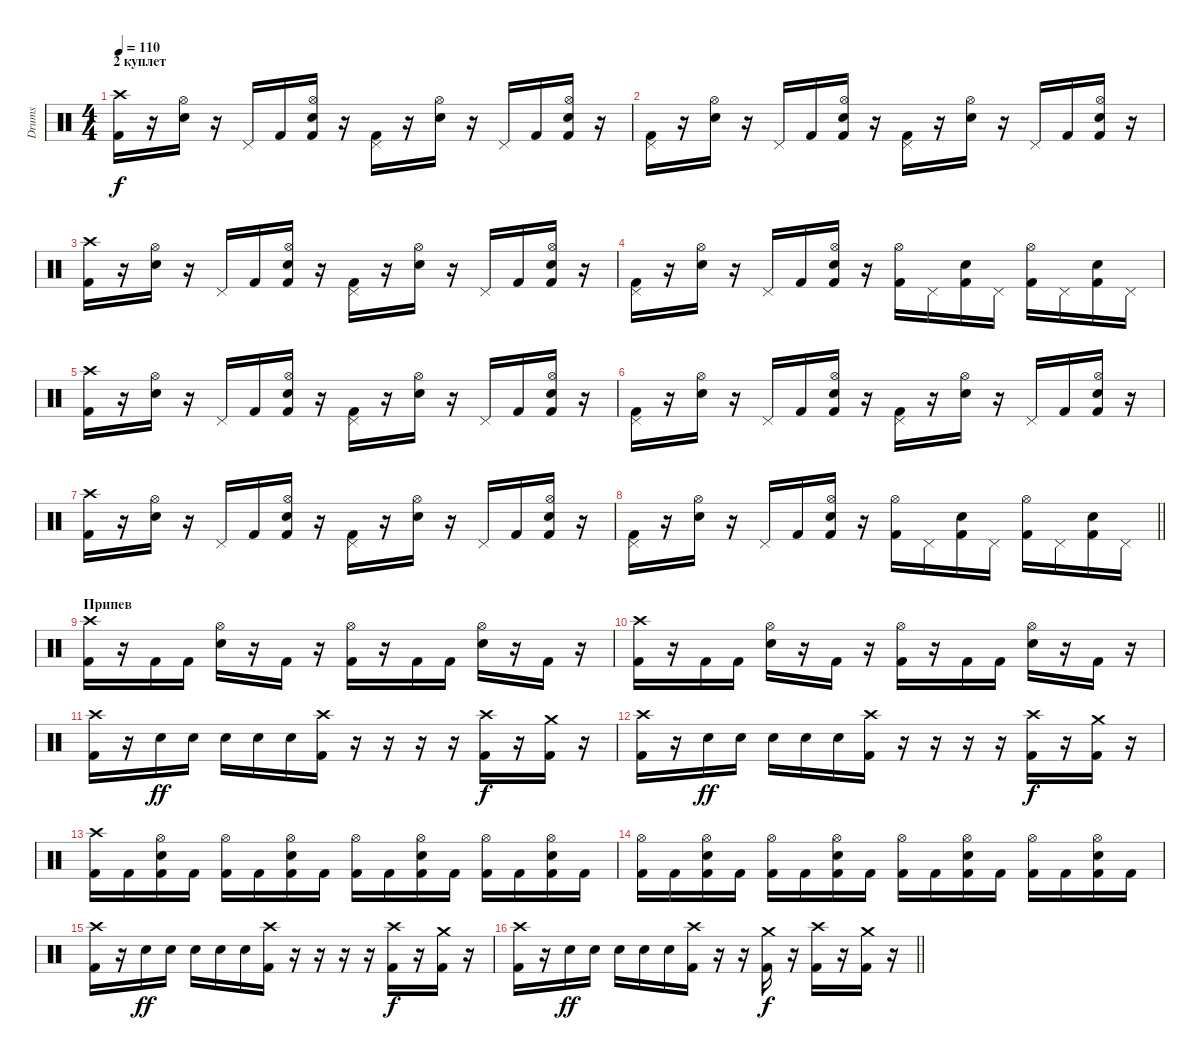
\track ("Drums" "Drums") {instrument percussion}
\staff {score}
\articulation defaults
\ts (4 4)
\section ("" "2 куплет")
\tempo 110
\clef neutral
\ks c
("Crash high (hit)" "Kick (hit) 2").16{dy f} r.16 ("Hi-Hat (open)" "Snare (hit) 2").16 r.16 "Pedal Hi-Hat (hit)".16 "Kick (hit) 2".16 ("Hi-Hat (open)" "Snare (hit) 2" "Kick (hit) 2").16 r.16 ("Pedal Hi-Hat (hit)" "Kick (hit) 2").16 r.16 ("Hi-Hat (open)" "Snare (hit) 2").16 r.16 "Pedal Hi-Hat (hit)".16 "Kick (hit) 2".16 ("Hi-Hat (open)" "Snare (hit) 2" "Kick (hit) 2").16 r.16 |
("Pedal Hi-Hat (hit)" "Kick (hit) 2").16 r.16 ("Hi-Hat (open)" "Snare (hit) 2").16 r.16 "Pedal Hi-Hat (hit)".16 "Kick (hit) 2".16 ("Hi-Hat (open)" "Snare (hit) 2" "Kick (hit) 2").16 r.16 ("Pedal Hi-Hat (hit)" "Kick (hit) 2").16 r.16 ("Hi-Hat (open)" "Snare (hit) 2").16 r.16 "Pedal Hi-Hat (hit)".16 "Kick (hit) 2".16 ("Hi-Hat (open)" "Snare (hit) 2" "Kick (hit) 2").16 r.16 |
("Crash high (hit)" "Kick (hit) 2").16 r.16 ("Hi-Hat (open)" "Snare (hit) 2").16 r.16 "Pedal Hi-Hat (hit)".16 "Kick (hit) 2".16 ("Hi-Hat (open)" "Snare (hit) 2" "Kick (hit) 2").16 r.16 ("Pedal Hi-Hat (hit)" "Kick (hit) 2").16 r.16 ("Hi-Hat (open)" "Snare (hit) 2").16 r.16 "Pedal Hi-Hat (hit)".16 "Kick (hit) 2".16 ("Hi-Hat (open)" "Snare (hit) 2" "Kick (hit) 2").16 r.16 |
("Pedal Hi-Hat (hit)" "Kick (hit) 2").16 r.16 ("Hi-Hat (open)" "Snare (hit) 2").16 r.16 "Pedal Hi-Hat (hit)".16 "Kick (hit) 2".16 ("Hi-Hat (open)" "Snare (hit) 2" "Kick (hit) 2").16 r.16 ("Hi-Hat (open)" "Kick (hit) 2").16 "Pedal Hi-Hat (hit)".16 ("Snare (hit) 2" "Kick (hit) 2").16 "Pedal Hi-Hat (hit)".16 ("Hi-Hat (open)" "Kick (hit) 2").16 "Pedal Hi-Hat (hit)".16 ("Snare (hit) 2" "Kick (hit) 2").16 "Pedal Hi-Hat (hit)".16 |
("Crash high (hit)" "Kick (hit) 2").16 r.16 ("Hi-Hat (open)" "Snare (hit) 2").16 r.16 "Pedal Hi-Hat (hit)".16 "Kick (hit) 2".16 ("Hi-Hat (open)" "Snare (hit) 2" "Kick (hit) 2").16 r.16 ("Pedal Hi-Hat (hit)" "Kick (hit) 2").16 r.16 ("Hi-Hat (open)" "Snare (hit) 2").16 r.16 "Pedal Hi-Hat (hit)".16 "Kick (hit) 2".16 ("Hi-Hat (open)" "Snare (hit) 2" "Kick (hit) 2").16 r.16 |
("Pedal Hi-Hat (hit)" "Kick (hit) 2").16 r.16 ("Hi-Hat (open)" "Snare (hit) 2").16 r.16 "Pedal Hi-Hat (hit)".16 "Kick (hit) 2".16 ("Hi-Hat (open)" "Snare (hit) 2" "Kick (hit) 2").16 r.16 ("Pedal Hi-Hat (hit)" "Kick (hit) 2").16 r.16 ("Hi-Hat (open)" "Snare (hit) 2").16 r.16 "Pedal Hi-Hat (hit)".16 "Kick (hit) 2".16 ("Hi-Hat (open)" "Snare (hit) 2" "Kick (hit) 2").16 r.16 |
("Crash high (hit)" "Kick (hit) 2").16 r.16 ("Hi-Hat (open)" "Snare (hit) 2").16 r.16 "Pedal Hi-Hat (hit)".16 "Kick (hit) 2".16 ("Hi-Hat (open)" "Snare (hit) 2" "Kick (hit) 2").16 r.16 ("Pedal Hi-Hat (hit)" "Kick (hit) 2").16 r.16 ("Hi-Hat (open)" "Snare (hit) 2").16 r.16 "Pedal Hi-Hat (hit)".16 "Kick (hit) 2".16 ("Hi-Hat (open)" "Snare (hit) 2" "Kick (hit) 2").16 r.16 |
\barLineRight lightlight
("Pedal Hi-Hat (hit)" "Kick (hit) 2").16 r.16 ("Hi-Hat (open)" "Snare (hit) 2").16 r.16 "Pedal Hi-Hat (hit)".16 "Kick (hit) 2".16 ("Hi-Hat (open)" "Snare (hit) 2" "Kick (hit) 2").16 r.16 ("Hi-Hat (open)" "Kick (hit) 2").16 "Pedal Hi-Hat (hit)".16 ("Snare (hit) 2" "Kick (hit) 2").16 "Pedal Hi-Hat (hit)".16 ("Hi-Hat (open)" "Kick (hit) 2").16 "Pedal Hi-Hat (hit)".16 ("Snare (hit) 2" "Kick (hit) 2").16 "Pedal Hi-Hat (hit)".16 |
\section ("" "Припев")
("Crash high (hit)" "Kick (hit) 2").16 r.16 "Kick (hit) 2".16 "Kick (hit) 2".16 ("Hi-Hat (open)" "Snare (hit) 2").16 r.16 "Kick (hit) 2".16 r.16 ("Hi-Hat (open)" "Kick (hit) 2").16 r.16 "Kick (hit) 2".16 "Kick (hit) 2".16 ("Hi-Hat (open)" "Snare (hit) 2").16 r.16 "Kick (hit) 2".16 r.16 |
("Crash high (hit)" "Kick (hit) 2").16 r.16 "Kick (hit) 2".16 "Kick (hit) 2".16 ("Hi-Hat (open)" "Snare (hit) 2").16 r.16 "Kick (hit) 2".16 r.16 ("Hi-Hat (open)" "Kick (hit) 2").16 r.16 "Kick (hit) 2".16 "Kick (hit) 2".16 ("Hi-Hat (open)" "Snare (hit) 2").16 r.16 "Kick (hit) 2".16 r.16 |
("Crash high (hit)" "Kick (hit) 2").16 r.16 "Snare (hit) 2".16{dy ff} "Snare (hit) 2".16 "Snare (hit) 2".16 "Snare (hit) 2".16 "Snare (hit) 2".16 ("Crash high (hit)" "Kick (hit) 2").16 r.16 r.16 r.16 r.16 ("Crash high (hit)" "Kick (hit) 2").16{dy f} r.16 ("Crash medium (hit)" "Kick (hit) 2").16 r.16 |
("Crash high (hit)" "Kick (hit) 2").16 r.16 "Snare (hit) 2".16{dy ff} "Snare (hit) 2".16 "Snare (hit) 2".16 "Snare (hit) 2".16 "Snare (hit) 2".16 ("Crash high (hit)" "Kick (hit) 2").16 r.16 r.16 r.16 r.16 ("Crash high (hit)" "Kick (hit) 2").16{dy f} r.16 ("Crash medium (hit)" "Kick (hit) 2").16 r.16 |
("Kick (hit) 2" "Crash high (hit)").16 "Kick (hit) 2".16 ("Kick (hit) 2" "Snare (hit) 2" "Hi-Hat (open)").16 "Kick (hit) 2".16 ("Kick (hit) 2" "Hi-Hat (open)").16 "Kick (hit) 2".16 ("Kick (hit) 2" "Snare (hit) 2" "Hi-Hat (open)").16 "Kick (hit) 2".16 ("Kick (hit) 2" "Hi-Hat (open)").16 "Kick (hit) 2".16 ("Kick (hit) 2" "Snare (hit) 2" "Hi-Hat (open)").16 "Kick (hit) 2".16 ("Kick (hit) 2" "Hi-Hat (open)").16 "Kick (hit) 2".16 ("Kick (hit) 2" "Snare (hit) 2" "Hi-Hat (open)").16 "Kick (hit) 2".16 |
("Kick (hit) 2" "Hi-Hat (open)").16 "Kick (hit) 2".16 ("Kick (hit) 2" "Snare (hit) 2" "Hi-Hat (open)").16 "Kick (hit) 2".16 ("Kick (hit) 2" "Hi-Hat (open)").16 "Kick (hit) 2".16 ("Kick (hit) 2" "Snare (hit) 2" "Hi-Hat (open)").16 "Kick (hit) 2".16 ("Kick (hit) 2" "Hi-Hat (open)").16 "Kick (hit) 2".16 ("Kick (hit) 2" "Snare (hit) 2" "Hi-Hat (open)").16 "Kick (hit) 2".16 ("Kick (hit) 2" "Hi-Hat (open)").16 "Kick (hit) 2".16 ("Kick (hit) 2" "Snare (hit) 2" "Hi-Hat (open)").16 "Kick (hit) 2".16 |
("Crash high (hit)" "Kick (hit) 2").16 r.16 "Snare (hit) 2".16{dy ff} "Snare (hit) 2".16 "Snare (hit) 2".16 "Snare (hit) 2".16 "Snare (hit) 2".16 ("Crash high (hit)" "Kick (hit) 2").16 r.16 r.16 r.16 r.16 ("Crash high (hit)" "Kick (hit) 2").16{dy f} r.16 ("Crash medium (hit)" "Kick (hit) 2").16 r.16 |
\barLineRight lightlight
("Crash high (hit)" "Kick (hit) 2").16 r.16 "Snare (hit) 2".16{dy ff} "Snare (hit) 2".16 "Snare (hit) 2".16 "Snare (hit) 2".16 "Snare (hit) 2".16 ("Crash high (hit)" "Kick (hit) 2").16 r.16 r.16 ("Crash medium (hit)" "Kick (hit) 2").16{dy f} r.16 ("Crash high (hit)" "Kick (hit) 2").16 r.16 ("Crash medium (hit)" "Kick (hit) 2").16 r.16
